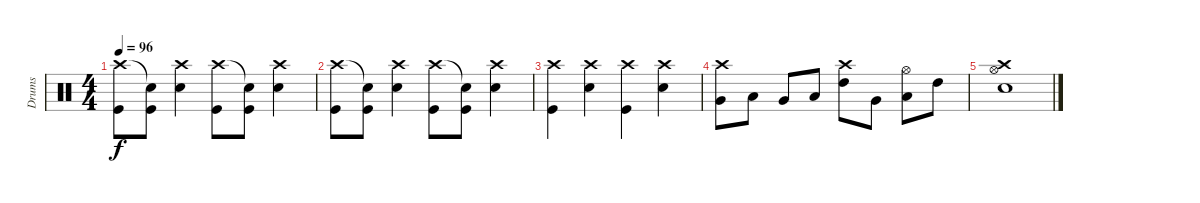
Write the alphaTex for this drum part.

\track ("Drums" "Drums") {instrument percussion}
\staff {score}
\articulation defaults
\ts (4 4)
\tempo 96
\clef neutral
\ks c
("Kick (hit)" "Crash high (hit)").8{dy f} ("Kick (hit)" "Snare (hit)"{t}).8 ("Snare (hit) 2" "Crash high (hit)").4 ("Kick (hit)" "Crash high (hit)").8 ("Kick (hit)" "Snare (hit)"{t}).8 ("Snare (hit) 2" "Crash high (hit)").4 |
("Kick (hit)" "Crash high (hit)").8 ("Kick (hit)" "Snare (hit)"{t}).8 ("Snare (hit) 2" "Crash high (hit)").4 ("Kick (hit)" "Crash high (hit)").8 ("Kick (hit)" "Snare (hit)"{t}).8 ("Snare (hit) 2" "Crash high (hit)").4 |
("Kick (hit)" "Crash high (hit)").4 ("Snare (hit) 2" "Crash high (hit)").4 ("Kick (hit)" "Crash high (hit)").4 ("Snare (hit) 2" "Crash high (hit)").4 |
("Very Low Tom (hit)" "Crash high (hit)").8 "Low Tom (hit)".8 "Very Low Tom (hit)".8 "Low Tom (hit)".8 ("High Tom (hit)" "Crash high (hit)").8 "Very Low Tom (hit)".8 ("Low Tom (hit)" "Hi-Hat (open)").8 "High Tom (hit)".8 |
("Hi-Hat (open)" "Crash high (hit)" "Snare (hit) 2").1
